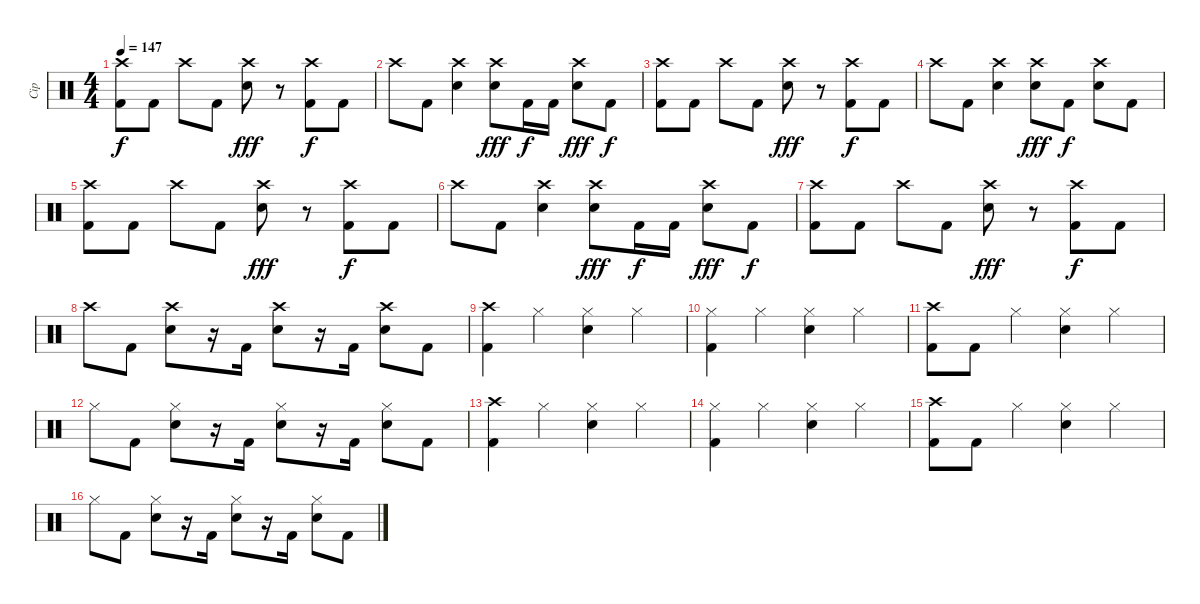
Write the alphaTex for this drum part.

\track ("Cip" "Cip") {instrument percussion}
\staff {score}
\articulation defaults
\ts (4 4)
\tempo 147
\clef neutral
\ks c
("Crash high (hit)" "Kick (hit) 2").8{dy f} "Kick (hit) 2".8 "Crash high (hit)".8 "Kick (hit) 2".8 ("Crash high (hit)" "Electric Snare (hit)").8{dy fff} r.8 ("Crash high (hit)" "Kick (hit) 2").8{dy f} "Kick (hit) 2".8 |
"Crash high (hit)".8 "Kick (hit) 2".8 ("Crash high (hit)" "Electric Snare (hit)").4 ("Crash high (hit)" "Electric Snare (hit)").8{dy fff} "Kick (hit) 2".16{dy f} "Kick (hit) 2".16 ("Crash high (hit)" "Electric Snare (hit)").8{dy fff} "Kick (hit) 2".8{dy f} |
("Crash high (hit)" "Kick (hit) 2").8 "Kick (hit) 2".8 "Crash high (hit)".8 "Kick (hit) 2".8 ("Crash high (hit)" "Electric Snare (hit)").8{dy fff} r.8 ("Crash high (hit)" "Kick (hit) 2").8{dy f} "Kick (hit) 2".8 |
"Crash high (hit)".8 "Kick (hit) 2".8 ("Crash high (hit)" "Electric Snare (hit)").4 ("Crash high (hit)" "Electric Snare (hit)").8{dy fff} "Kick (hit) 2".8{dy f} ("Crash high (hit)" "Electric Snare (hit)").8 "Kick (hit) 2".8 |
("Crash high (hit)" "Kick (hit) 2").8 "Kick (hit) 2".8 "Crash high (hit)".8 "Kick (hit) 2".8 ("Crash high (hit)" "Electric Snare (hit)").8{dy fff} r.8 ("Crash high (hit)" "Kick (hit) 2").8{dy f} "Kick (hit) 2".8 |
"Crash high (hit)".8 "Kick (hit) 2".8 ("Crash high (hit)" "Electric Snare (hit)").4 ("Crash high (hit)" "Electric Snare (hit)").8{dy fff} "Kick (hit) 2".16{dy f} "Kick (hit) 2".16 ("Crash high (hit)" "Electric Snare (hit)").8{dy fff} "Kick (hit) 2".8{dy f} |
("Crash high (hit)" "Kick (hit) 2").8 "Kick (hit) 2".8 "Crash high (hit)".8 "Kick (hit) 2".8 ("Crash high (hit)" "Electric Snare (hit)").8{dy fff} r.8 ("Crash high (hit)" "Kick (hit) 2").8{dy f} "Kick (hit) 2".8 |
"Crash high (hit)".8 "Kick (hit) 2".8 ("Crash high (hit)" "Electric Snare (hit)").8 r.16 "Kick (hit) 2".16 ("Crash high (hit)" "Electric Snare (hit)").8 r.16 "Kick (hit) 2".16 ("Crash high (hit)" "Electric Snare (hit)").8 "Kick (hit) 2".8 |
("Crash high (hit)" "Kick (hit) 2").4 "Hi-Hat (closed)".4 ("Hi-Hat (closed)" "Electric Snare (hit)").4 "Hi-Hat (closed)".4 |
("Hi-Hat (closed)" "Kick (hit) 2").4 "Hi-Hat (closed)".4 ("Hi-Hat (closed)" "Electric Snare (hit)").4 "Hi-Hat (closed)".4 |
("Crash high (hit)" "Kick (hit) 2").8 "Kick (hit) 2".8 "Hi-Hat (closed)".4 ("Hi-Hat (closed)" "Electric Snare (hit)").4 "Hi-Hat (closed)".4 |
"Hi-Hat (closed)".8 "Kick (hit) 2".8 ("Hi-Hat (closed)" "Electric Snare (hit)").8 r.16 "Kick (hit) 2".16 ("Hi-Hat (closed)" "Electric Snare (hit)").8 r.16 "Kick (hit) 2".16 ("Hi-Hat (closed)" "Electric Snare (hit)").8 "Kick (hit) 2".8 |
("Crash high (hit)" "Kick (hit) 2").4 "Hi-Hat (closed)".4 ("Hi-Hat (closed)" "Electric Snare (hit)").4 "Hi-Hat (closed)".4 |
("Hi-Hat (closed)" "Kick (hit) 2").4 "Hi-Hat (closed)".4 ("Hi-Hat (closed)" "Electric Snare (hit)").4 "Hi-Hat (closed)".4 |
("Crash high (hit)" "Kick (hit) 2").8 "Kick (hit) 2".8 "Hi-Hat (closed)".4 ("Hi-Hat (closed)" "Electric Snare (hit)").4 "Hi-Hat (closed)".4 |
"Hi-Hat (closed)".8 "Kick (hit) 2".8 ("Hi-Hat (closed)" "Electric Snare (hit)").8 r.16 "Kick (hit) 2".16 ("Hi-Hat (closed)" "Electric Snare (hit)").8 r.16 "Kick (hit) 2".16 ("Hi-Hat (closed)" "Electric Snare (hit)").8 "Kick (hit) 2".8
